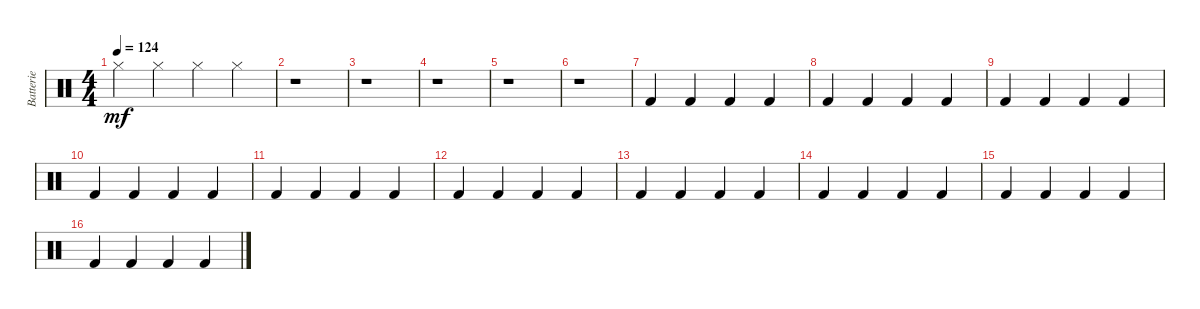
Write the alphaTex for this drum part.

\track ("Batterie" "Batterie") {instrument percussion}
\staff {score}
\articulation defaults
\ts (4 4)
\tempo 124
\clef neutral
\ks c "Hi-Hat (closed)".4{dy mf} "Hi-Hat (closed)".4 "Hi-Hat (closed)".4 "Hi-Hat (closed)".4
|
r.1 |
r.1 |
r.1 |
r.1 |
r.1 |
"Kick (hit) 2".4 "Kick (hit) 2".4 "Kick (hit) 2".4 "Kick (hit) 2".4 |
"Kick (hit) 2".4 "Kick (hit) 2".4 "Kick (hit) 2".4 "Kick (hit) 2".4 |
"Kick (hit) 2".4 "Kick (hit) 2".4 "Kick (hit) 2".4 "Kick (hit) 2".4 |
"Kick (hit) 2".4 "Kick (hit) 2".4 "Kick (hit) 2".4 "Kick (hit) 2".4 |
"Kick (hit) 2".4 "Kick (hit) 2".4 "Kick (hit) 2".4 "Kick (hit) 2".4 |
"Kick (hit) 2".4 "Kick (hit) 2".4 "Kick (hit) 2".4 "Kick (hit) 2".4 |
"Kick (hit) 2".4 "Kick (hit) 2".4 "Kick (hit) 2".4 "Kick (hit) 2".4 |
"Kick (hit) 2".4 "Kick (hit) 2".4 "Kick (hit) 2".4 "Kick (hit) 2".4 |
"Kick (hit) 2".4 "Kick (hit) 2".4 "Kick (hit) 2".4 "Kick (hit) 2".4 |
"Kick (hit) 2".4 "Kick (hit) 2".4 "Kick (hit) 2".4 "Kick (hit) 2".4
